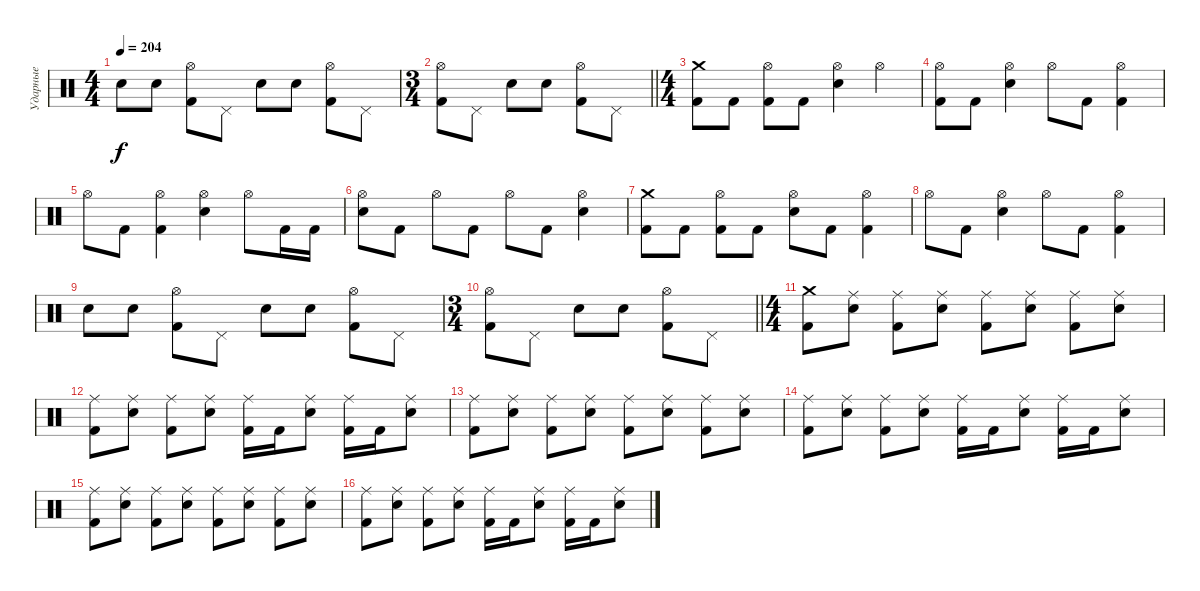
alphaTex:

\track ("Ударные" "Ударные") {instrument percussion}
\staff {score}
\articulation defaults
\ts (4 4)
\tempo 204
\clef neutral
\ks c "Snare (hit) 2".8{dy f} "Snare (hit) 2".8
("Hi-Hat (open)" "Kick (hit) 2").8 "Pedal Hi-Hat (hit)".8 "Snare (hit) 2".8 "Snare (hit) 2".8 ("Hi-Hat (open)" "Kick (hit) 2").8 "Pedal Hi-Hat (hit)".8 |
\ts (3 4)
\barLineRight lightlight
("Hi-Hat (open)" "Kick (hit) 2").8 "Pedal Hi-Hat (hit)".8 "Snare (hit) 2".8 "Snare (hit) 2".8 ("Hi-Hat (open)" "Kick (hit) 2").8 "Pedal Hi-Hat (hit)".8 |
\ts (4 4)
("Crash medium (hit)" "Kick (hit) 2").8 "Kick (hit) 2".8 ("Hi-Hat (open)" "Kick (hit) 2").8 "Kick (hit) 2".8 ("Hi-Hat (open)" "Snare (hit) 2").4 "Hi-Hat (open)".4 |
("Hi-Hat (open)" "Kick (hit) 2").8 "Kick (hit) 2".8 ("Hi-Hat (open)" "Snare (hit) 2").4 "Hi-Hat (open)".8 "Kick (hit) 2".8 ("Hi-Hat (open)" "Kick (hit) 2").4 |
"Hi-Hat (open)".8 "Kick (hit) 2".8 ("Hi-Hat (open)" "Kick (hit) 2").4 ("Hi-Hat (open)" "Snare (hit) 2").4 "Hi-Hat (open)".8 "Kick (hit) 2".16 "Kick (hit) 2".16 |
("Hi-Hat (open)" "Snare (hit) 2").8 "Kick (hit) 2".8 "Hi-Hat (open)".8 "Kick (hit) 2".8 "Hi-Hat (open)".8 "Kick (hit) 2".8 ("Hi-Hat (open)" "Snare (hit) 2").4 |
("Crash medium (hit)" "Kick (hit) 2").8 "Kick (hit) 2".8 ("Hi-Hat (open)" "Kick (hit) 2").8 "Kick (hit) 2".8 ("Hi-Hat (open)" "Snare (hit) 2").8 "Kick (hit) 2".8 ("Hi-Hat (open)" "Kick (hit) 2").4 |
"Hi-Hat (open)".8 "Kick (hit) 2".8 ("Hi-Hat (open)" "Snare (hit) 2").4 "Hi-Hat (open)".8 "Kick (hit) 2".8 ("Hi-Hat (open)" "Kick (hit) 2").4 |
"Snare (hit) 2".8 "Snare (hit) 2".8 ("Hi-Hat (open)" "Kick (hit) 2").8 "Pedal Hi-Hat (hit)".8 "Snare (hit) 2".8 "Snare (hit) 2".8 ("Hi-Hat (open)" "Kick (hit) 2").8 "Pedal Hi-Hat (hit)".8 |
\ts (3 4)
\barLineRight lightlight
("Hi-Hat (open)" "Kick (hit) 2").8 "Pedal Hi-Hat (hit)".8 "Snare (hit) 2".8 "Snare (hit) 2".8 ("Hi-Hat (open)" "Kick (hit) 2").8 "Pedal Hi-Hat (hit)".8 |
\ts (4 4)
("Crash medium (hit)" "Kick (hit) 2").8 ("Ride (middle)" "Snare (hit) 2").8 ("Ride (middle)" "Kick (hit) 2").8 ("Ride (middle)" "Snare (hit) 2").8 ("Ride (middle)" "Kick (hit) 2").8 ("Ride (middle)" "Snare (hit) 2").8 ("Ride (middle)" "Kick (hit) 2").8 ("Ride (middle)" "Snare (hit) 2").8 |
("Ride (middle)" "Kick (hit) 2").8 ("Ride (middle)" "Snare (hit) 2").8 ("Ride (middle)" "Kick (hit) 2").8 ("Ride (middle)" "Snare (hit) 2").8 ("Ride (middle)" "Kick (hit) 2").16 "Kick (hit) 2".16 ("Ride (middle)" "Snare (hit) 2").8 ("Ride (middle)" "Kick (hit) 2").16 "Kick (hit) 2".16 ("Ride (middle)" "Snare (hit) 2").8 |
("Ride (middle)" "Kick (hit) 2").8 ("Ride (middle)" "Snare (hit) 2").8 ("Ride (middle)" "Kick (hit) 2").8 ("Ride (middle)" "Snare (hit) 2").8 ("Ride (middle)" "Kick (hit) 2").8 ("Ride (middle)" "Snare (hit) 2").8 ("Ride (middle)" "Kick (hit) 2").8 ("Ride (middle)" "Snare (hit) 2").8 |
("Ride (middle)" "Kick (hit) 2").8 ("Ride (middle)" "Snare (hit) 2").8 ("Ride (middle)" "Kick (hit) 2").8 ("Ride (middle)" "Snare (hit) 2").8 ("Ride (middle)" "Kick (hit) 2").16 "Kick (hit) 2".16 ("Ride (middle)" "Snare (hit) 2").8 ("Ride (middle)" "Kick (hit) 2").16 "Kick (hit) 2".16 ("Ride (middle)" "Snare (hit) 2").8 |
("Ride (middle)" "Kick (hit) 2").8 ("Ride (middle)" "Snare (hit) 2").8 ("Ride (middle)" "Kick (hit) 2").8 ("Ride (middle)" "Snare (hit) 2").8 ("Ride (middle)" "Kick (hit) 2").8 ("Ride (middle)" "Snare (hit) 2").8 ("Ride (middle)" "Kick (hit) 2").8 ("Ride (middle)" "Snare (hit) 2").8 |
("Ride (middle)" "Kick (hit) 2").8 ("Ride (middle)" "Snare (hit) 2").8 ("Ride (middle)" "Kick (hit) 2").8 ("Ride (middle)" "Snare (hit) 2").8 ("Ride (middle)" "Kick (hit) 2").16 "Kick (hit) 2".16 ("Ride (middle)" "Snare (hit) 2").8 ("Ride (middle)" "Kick (hit) 2").16 "Kick (hit) 2".16 ("Ride (middle)" "Snare (hit) 2").8
